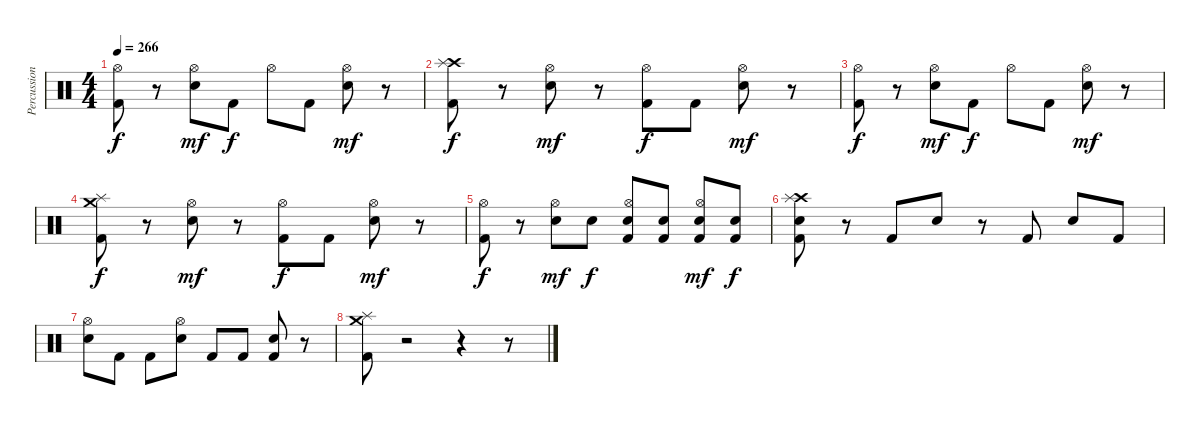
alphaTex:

\track ("Percussion" "Percussion") {instrument percussion}
\staff {score}
\articulation defaults
\ts (4 4)
\tempo 266
\clef neutral
\ks c
("Kick (hit) 2" "Hi-Hat (open)").8{dy f} r.8 ("Snare (hit) 2" "Hi-Hat (open)").8{dy mf} "Kick (hit) 2".8{dy f} "Hi-Hat (open)".8 "Kick (hit) 2".8 ("Snare (hit) 2" "Hi-Hat (open)").8{dy mf} r.8 |
("Crash high (hit)" "Splash (hit)" "Kick (hit) 2").8{dy f} r.8 ("Snare (hit) 2" "Hi-Hat (open)").8{dy mf} r.8 ("Kick (hit) 2" "Hi-Hat (open)").8{dy f} "Kick (hit) 2".8 ("Snare (hit) 2" "Hi-Hat (open)").8{dy mf} r.8 |
("Kick (hit) 2" "Hi-Hat (open)").8{dy f} r.8 ("Snare (hit) 2" "Hi-Hat (open)").8{dy mf} "Kick (hit) 2".8{dy f} "Hi-Hat (open)".8 "Kick (hit) 2".8 ("Snare (hit) 2" "Hi-Hat (open)").8{dy mf} r.8 |
("Crash medium (hit)" "Splash (hit)" "Kick (hit) 2").8{dy f} r.8 ("Snare (hit) 2" "Hi-Hat (open)").8{dy mf} r.8 ("Kick (hit) 2" "Hi-Hat (open)").8{dy f} "Kick (hit) 2".8 ("Snare (hit) 2" "Hi-Hat (open)").8{dy mf} r.8 |
("Kick (hit) 2" "Hi-Hat (open)").8{dy f} r.8 ("Snare (hit) 2" "Hi-Hat (open)").8{dy mf} "Snare (hit) 2".8{dy f} ("Snare (hit) 2" "Kick (hit) 2" "Hi-Hat (open)").8 ("Snare (hit) 2" "Kick (hit) 2").8 ("Kick (hit) 2" "Snare (hit) 2" "Hi-Hat (open)").8{dy mf} ("Snare (hit) 2" "Kick (hit) 2").8{dy f} |
("Snare (hit) 2" "Crash high (hit)" "Splash (hit)" "Kick (hit) 2").8 r.8 "Kick (hit) 2".8 "Snare (hit) 2".8 r.8 "Kick (hit) 2".8 "Snare (hit) 2".8 "Kick (hit) 2".8 |
("Snare (hit) 2" "Hi-Hat (open)").8 "Kick (hit) 2".8 "Kick (hit) 2".8 ("Snare (hit) 2" "Hi-Hat (open)").8 "Kick (hit) 2".8 "Kick (hit) 2".8 ("Kick (hit) 2" "Snare (hit) 2").8 r.8 |
("Crash medium (hit)" "Splash (hit)" "Kick (hit) 2").8 r.2 r.4 r.8
